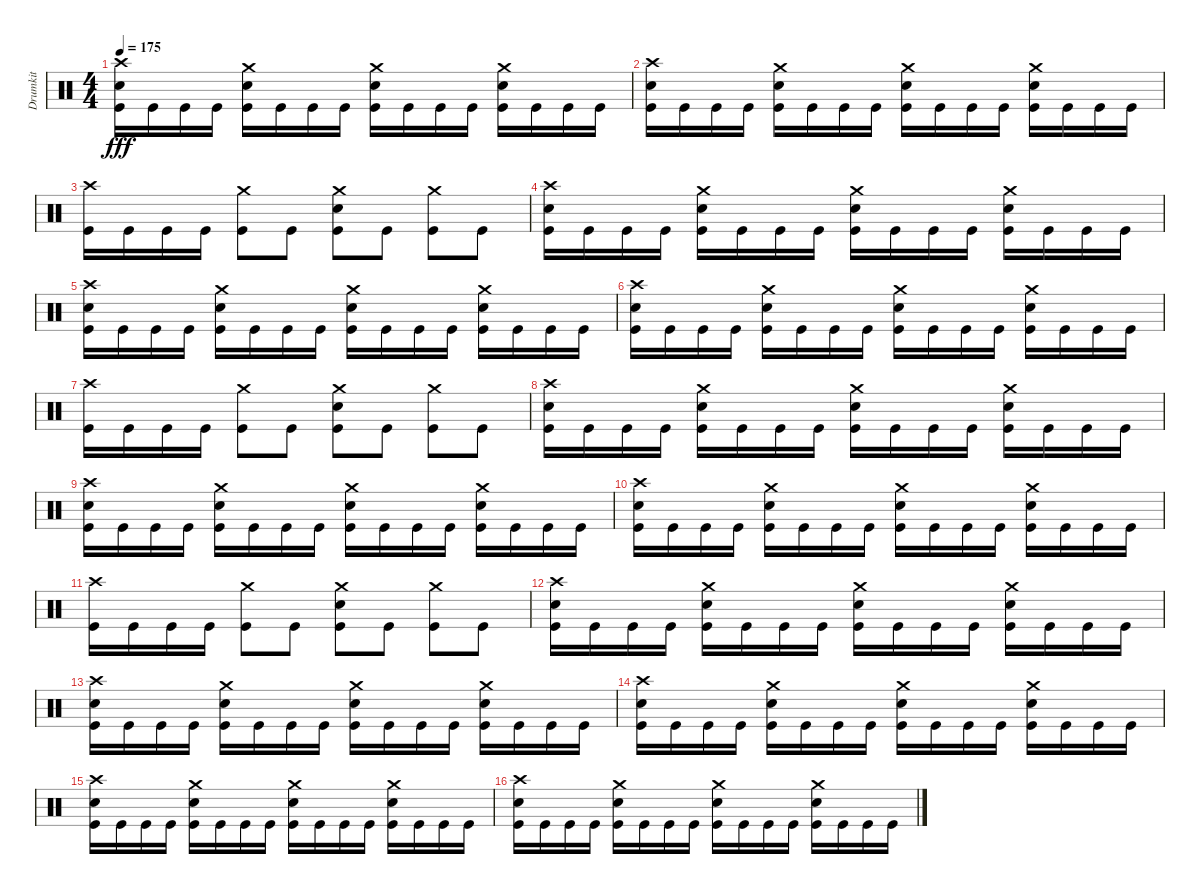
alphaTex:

\track ("Drumkit" "Drumkit") {instrument percussion}
\staff {score}
\articulation defaults
\ts (4 4)
\tempo 175
\clef neutral
\ks c
("Crash high (hit)" "Snare (hit) 2" "Kick (hit)").16{dy fff} "Kick (hit)".16 "Kick (hit)".16 "Kick (hit)".16 ("Crash medium (hit)" "Snare (hit) 2" "Kick (hit)").16 "Kick (hit)".16 "Kick (hit)".16 "Kick (hit)".16 ("Crash medium (hit)" "Snare (hit) 2" "Kick (hit)").16 "Kick (hit)".16 "Kick (hit)".16 "Kick (hit)".16 ("Crash medium (hit)" "Snare (hit) 2" "Kick (hit)").16 "Kick (hit)".16 "Kick (hit)".16 "Kick (hit)".16 |
("Crash high (hit)" "Snare (hit) 2" "Kick (hit)").16 "Kick (hit)".16 "Kick (hit)".16 "Kick (hit)".16 ("Crash medium (hit)" "Snare (hit) 2" "Kick (hit)").16 "Kick (hit)".16 "Kick (hit)".16 "Kick (hit)".16 ("Crash medium (hit)" "Snare (hit) 2" "Kick (hit)").16 "Kick (hit)".16 "Kick (hit)".16 "Kick (hit)".16 ("Crash medium (hit)" "Snare (hit) 2" "Kick (hit)").16 "Kick (hit)".16 "Kick (hit)".16 "Kick (hit)".16 |
("Crash high (hit)" "Kick (hit)").16 "Kick (hit)".16 "Kick (hit)".16 "Kick (hit)".16 ("Crash medium (hit)" "Kick (hit)").8 "Kick (hit)".8 ("Crash medium (hit)" "Snare (hit) 2" "Kick (hit)").8 "Kick (hit)".8 ("Crash medium (hit)" "Kick (hit)").8 "Kick (hit)".8 |
("Crash high (hit)" "Snare (hit) 2" "Kick (hit)").16 "Kick (hit)".16 "Kick (hit)".16 "Kick (hit)".16 ("Crash medium (hit)" "Snare (hit) 2" "Kick (hit)").16 "Kick (hit)".16 "Kick (hit)".16 "Kick (hit)".16 ("Crash medium (hit)" "Snare (hit) 2" "Kick (hit)").16 "Kick (hit)".16 "Kick (hit)".16 "Kick (hit)".16 ("Crash medium (hit)" "Snare (hit) 2" "Kick (hit)").16 "Kick (hit)".16 "Kick (hit)".16 "Kick (hit)".16 |
("Crash high (hit)" "Snare (hit) 2" "Kick (hit)").16 "Kick (hit)".16 "Kick (hit)".16 "Kick (hit)".16 ("Crash medium (hit)" "Snare (hit) 2" "Kick (hit)").16 "Kick (hit)".16 "Kick (hit)".16 "Kick (hit)".16 ("Crash medium (hit)" "Snare (hit) 2" "Kick (hit)").16 "Kick (hit)".16 "Kick (hit)".16 "Kick (hit)".16 ("Crash medium (hit)" "Snare (hit) 2" "Kick (hit)").16 "Kick (hit)".16 "Kick (hit)".16 "Kick (hit)".16 |
("Crash high (hit)" "Snare (hit) 2" "Kick (hit)").16 "Kick (hit)".16 "Kick (hit)".16 "Kick (hit)".16 ("Crash medium (hit)" "Snare (hit) 2" "Kick (hit)").16 "Kick (hit)".16 "Kick (hit)".16 "Kick (hit)".16 ("Crash medium (hit)" "Snare (hit) 2" "Kick (hit)").16 "Kick (hit)".16 "Kick (hit)".16 "Kick (hit)".16 ("Crash medium (hit)" "Snare (hit) 2" "Kick (hit)").16 "Kick (hit)".16 "Kick (hit)".16 "Kick (hit)".16 |
("Crash high (hit)" "Kick (hit)").16 "Kick (hit)".16 "Kick (hit)".16 "Kick (hit)".16 ("Crash medium (hit)" "Kick (hit)").8 "Kick (hit)".8 ("Crash medium (hit)" "Snare (hit) 2" "Kick (hit)").8 "Kick (hit)".8 ("Crash medium (hit)" "Kick (hit)").8 "Kick (hit)".8 |
("Crash high (hit)" "Snare (hit) 2" "Kick (hit)").16 "Kick (hit)".16 "Kick (hit)".16 "Kick (hit)".16 ("Crash medium (hit)" "Snare (hit) 2" "Kick (hit)").16 "Kick (hit)".16 "Kick (hit)".16 "Kick (hit)".16 ("Crash medium (hit)" "Snare (hit) 2" "Kick (hit)").16 "Kick (hit)".16 "Kick (hit)".16 "Kick (hit)".16 ("Crash medium (hit)" "Snare (hit) 2" "Kick (hit)").16 "Kick (hit)".16 "Kick (hit)".16 "Kick (hit)".16 |
("Crash high (hit)" "Snare (hit) 2" "Kick (hit)").16 "Kick (hit)".16 "Kick (hit)".16 "Kick (hit)".16 ("Crash medium (hit)" "Snare (hit) 2" "Kick (hit)").16 "Kick (hit)".16 "Kick (hit)".16 "Kick (hit)".16 ("Crash medium (hit)" "Snare (hit) 2" "Kick (hit)").16 "Kick (hit)".16 "Kick (hit)".16 "Kick (hit)".16 ("Crash medium (hit)" "Snare (hit) 2" "Kick (hit)").16 "Kick (hit)".16 "Kick (hit)".16 "Kick (hit)".16 |
("Crash high (hit)" "Snare (hit) 2" "Kick (hit)").16 "Kick (hit)".16 "Kick (hit)".16 "Kick (hit)".16 ("Crash medium (hit)" "Snare (hit) 2" "Kick (hit)").16 "Kick (hit)".16 "Kick (hit)".16 "Kick (hit)".16 ("Crash medium (hit)" "Snare (hit) 2" "Kick (hit)").16 "Kick (hit)".16 "Kick (hit)".16 "Kick (hit)".16 ("Crash medium (hit)" "Snare (hit) 2" "Kick (hit)").16 "Kick (hit)".16 "Kick (hit)".16 "Kick (hit)".16 |
("Crash high (hit)" "Kick (hit)").16 "Kick (hit)".16 "Kick (hit)".16 "Kick (hit)".16 ("Crash medium (hit)" "Kick (hit)").8 "Kick (hit)".8 ("Crash medium (hit)" "Snare (hit) 2" "Kick (hit)").8 "Kick (hit)".8 ("Crash medium (hit)" "Kick (hit)").8 "Kick (hit)".8 |
("Crash high (hit)" "Snare (hit) 2" "Kick (hit)").16 "Kick (hit)".16 "Kick (hit)".16 "Kick (hit)".16 ("Crash medium (hit)" "Snare (hit) 2" "Kick (hit)").16 "Kick (hit)".16 "Kick (hit)".16 "Kick (hit)".16 ("Crash medium (hit)" "Snare (hit) 2" "Kick (hit)").16 "Kick (hit)".16 "Kick (hit)".16 "Kick (hit)".16 ("Crash medium (hit)" "Snare (hit) 2" "Kick (hit)").16 "Kick (hit)".16 "Kick (hit)".16 "Kick (hit)".16 |
("Crash high (hit)" "Snare (hit) 2" "Kick (hit)").16 "Kick (hit)".16 "Kick (hit)".16 "Kick (hit)".16 ("Crash medium (hit)" "Snare (hit) 2" "Kick (hit)").16 "Kick (hit)".16 "Kick (hit)".16 "Kick (hit)".16 ("Crash medium (hit)" "Snare (hit) 2" "Kick (hit)").16 "Kick (hit)".16 "Kick (hit)".16 "Kick (hit)".16 ("Crash medium (hit)" "Snare (hit) 2" "Kick (hit)").16 "Kick (hit)".16 "Kick (hit)".16 "Kick (hit)".16 |
("Crash high (hit)" "Snare (hit) 2" "Kick (hit)").16 "Kick (hit)".16 "Kick (hit)".16 "Kick (hit)".16 ("Crash medium (hit)" "Snare (hit) 2" "Kick (hit)").16 "Kick (hit)".16 "Kick (hit)".16 "Kick (hit)".16 ("Crash medium (hit)" "Snare (hit) 2" "Kick (hit)").16 "Kick (hit)".16 "Kick (hit)".16 "Kick (hit)".16 ("Crash medium (hit)" "Snare (hit) 2" "Kick (hit)").16 "Kick (hit)".16 "Kick (hit)".16 "Kick (hit)".16 |
("Crash high (hit)" "Snare (hit) 2" "Kick (hit)").16 "Kick (hit)".16 "Kick (hit)".16 "Kick (hit)".16 ("Crash medium (hit)" "Snare (hit) 2" "Kick (hit)").16 "Kick (hit)".16 "Kick (hit)".16 "Kick (hit)".16 ("Crash medium (hit)" "Snare (hit) 2" "Kick (hit)").16 "Kick (hit)".16 "Kick (hit)".16 "Kick (hit)".16 ("Crash medium (hit)" "Snare (hit) 2" "Kick (hit)").16 "Kick (hit)".16 "Kick (hit)".16 "Kick (hit)".16 |
("Crash high (hit)" "Snare (hit) 2" "Kick (hit)").16 "Kick (hit)".16 "Kick (hit)".16 "Kick (hit)".16 ("Crash medium (hit)" "Snare (hit) 2" "Kick (hit)").16 "Kick (hit)".16 "Kick (hit)".16 "Kick (hit)".16 ("Crash medium (hit)" "Snare (hit) 2" "Kick (hit)").16 "Kick (hit)".16 "Kick (hit)".16 "Kick (hit)".16 ("Crash medium (hit)" "Snare (hit) 2" "Kick (hit)").16 "Kick (hit)".16 "Kick (hit)".16 "Kick (hit)".16
